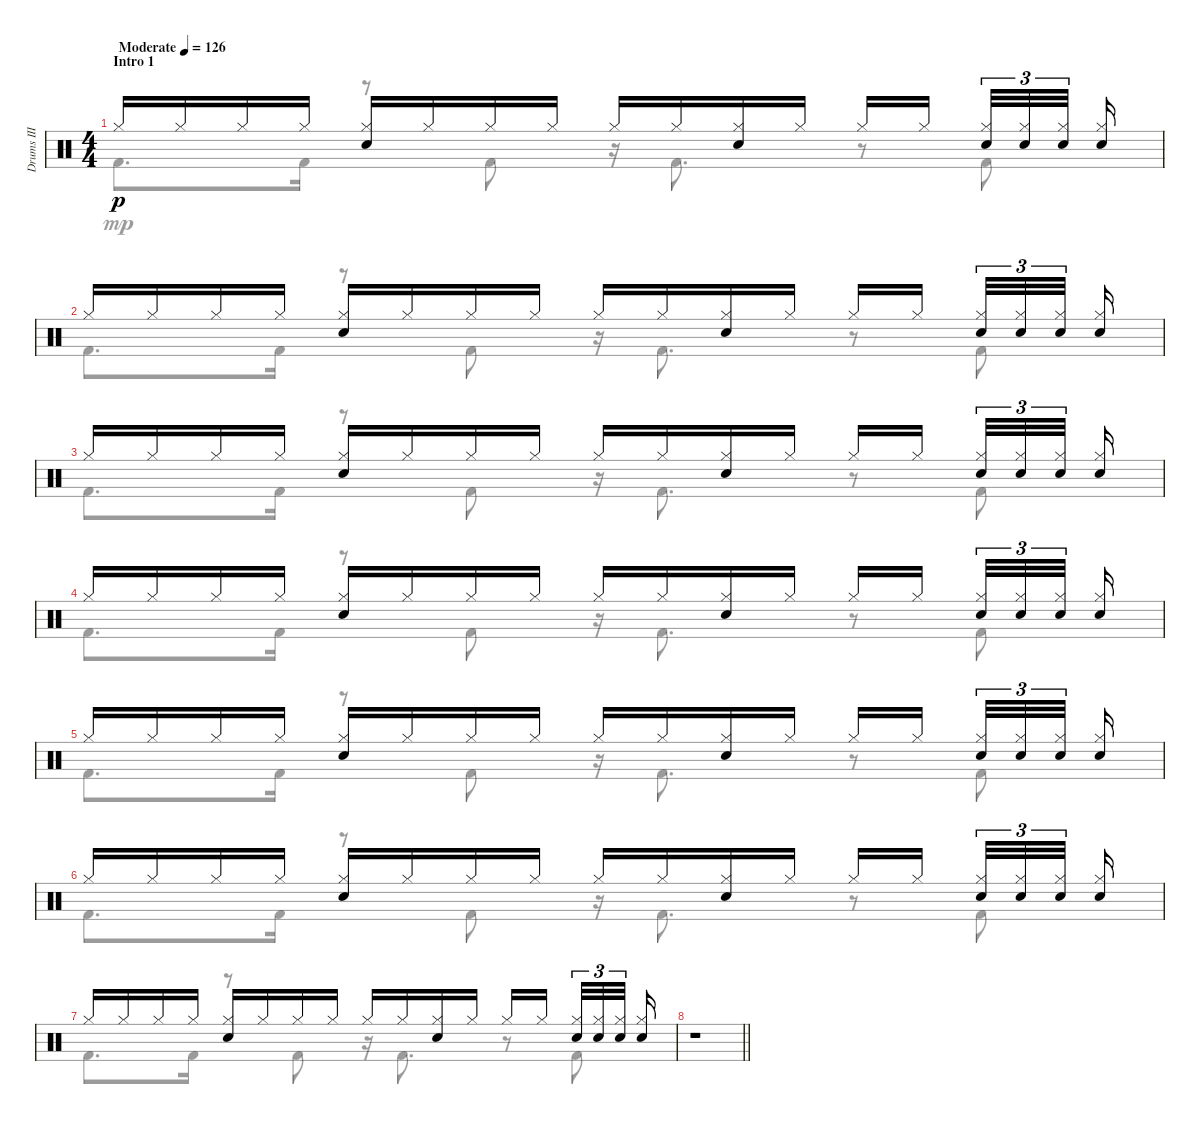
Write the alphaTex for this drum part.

\track ("Drums III" "Drums III") {instrument percussion}
\staff {score}
\articulation defaults
\voice
\ts (4 4)
\section ("" "Intro 1")
\tempo (126 "Moderate")
\clef neutral
\ks c "Hi-Hat (closed)".16{dy p} "Hi-Hat (closed)".16 "Hi-Hat (closed)".16 "Hi-Hat (closed)".16
("Hi-Hat (closed)" "Electric Snare (hit)").16 "Hi-Hat (closed)".16 "Hi-Hat (closed)".16 "Hi-Hat (closed)".16 "Hi-Hat (closed)".16 "Hi-Hat (closed)".16 ("Hi-Hat (closed)" "Electric Snare (hit)").16 "Hi-Hat (closed)".16 "Hi-Hat (closed)".16 "Hi-Hat (closed)".16{beam splitsecondary} ("Hi-Hat (closed)" "Electric Snare (hit)").32{tu (3 2)} ("Hi-Hat (closed)" "Electric Snare (hit)").32{tu (3 2)} ("Hi-Hat (closed)" "Electric Snare (hit)").32{tu (3 2) beam splitsecondary} ("Hi-Hat (closed)" "Electric Snare (hit)").16 |
"Hi-Hat (closed)".16 "Hi-Hat (closed)".16 "Hi-Hat (closed)".16 "Hi-Hat (closed)".16 ("Hi-Hat (closed)" "Electric Snare (hit)").16 "Hi-Hat (closed)".16 "Hi-Hat (closed)".16 "Hi-Hat (closed)".16 "Hi-Hat (closed)".16 "Hi-Hat (closed)".16 ("Hi-Hat (closed)" "Electric Snare (hit)").16 "Hi-Hat (closed)".16 "Hi-Hat (closed)".16 "Hi-Hat (closed)".16{beam splitsecondary} ("Hi-Hat (closed)" "Electric Snare (hit)").32{tu (3 2)} ("Hi-Hat (closed)" "Electric Snare (hit)").32{tu (3 2)} ("Hi-Hat (closed)" "Electric Snare (hit)").32{tu (3 2) beam splitsecondary} ("Hi-Hat (closed)" "Electric Snare (hit)").16 |
"Hi-Hat (closed)".16 "Hi-Hat (closed)".16 "Hi-Hat (closed)".16 "Hi-Hat (closed)".16 ("Hi-Hat (closed)" "Electric Snare (hit)").16 "Hi-Hat (closed)".16 "Hi-Hat (closed)".16 "Hi-Hat (closed)".16 "Hi-Hat (closed)".16 "Hi-Hat (closed)".16 ("Hi-Hat (closed)" "Electric Snare (hit)").16 "Hi-Hat (closed)".16 "Hi-Hat (closed)".16 "Hi-Hat (closed)".16{beam splitsecondary} ("Hi-Hat (closed)" "Electric Snare (hit)").32{tu (3 2)} ("Hi-Hat (closed)" "Electric Snare (hit)").32{tu (3 2)} ("Hi-Hat (closed)" "Electric Snare (hit)").32{tu (3 2) beam splitsecondary} ("Hi-Hat (closed)" "Electric Snare (hit)").16 |
"Hi-Hat (closed)".16 "Hi-Hat (closed)".16 "Hi-Hat (closed)".16 "Hi-Hat (closed)".16 ("Hi-Hat (closed)" "Electric Snare (hit)").16 "Hi-Hat (closed)".16 "Hi-Hat (closed)".16 "Hi-Hat (closed)".16 "Hi-Hat (closed)".16 "Hi-Hat (closed)".16 ("Hi-Hat (closed)" "Electric Snare (hit)").16 "Hi-Hat (closed)".16 "Hi-Hat (closed)".16 "Hi-Hat (closed)".16{beam splitsecondary} ("Hi-Hat (closed)" "Electric Snare (hit)").32{tu (3 2)} ("Hi-Hat (closed)" "Electric Snare (hit)").32{tu (3 2)} ("Hi-Hat (closed)" "Electric Snare (hit)").32{tu (3 2) beam splitsecondary} ("Hi-Hat (closed)" "Electric Snare (hit)").16 |
"Hi-Hat (closed)".16 "Hi-Hat (closed)".16 "Hi-Hat (closed)".16 "Hi-Hat (closed)".16 ("Hi-Hat (closed)" "Electric Snare (hit)").16 "Hi-Hat (closed)".16 "Hi-Hat (closed)".16 "Hi-Hat (closed)".16 "Hi-Hat (closed)".16 "Hi-Hat (closed)".16 ("Hi-Hat (closed)" "Electric Snare (hit)").16 "Hi-Hat (closed)".16 "Hi-Hat (closed)".16 "Hi-Hat (closed)".16{beam splitsecondary} ("Hi-Hat (closed)" "Electric Snare (hit)").32{tu (3 2)} ("Hi-Hat (closed)" "Electric Snare (hit)").32{tu (3 2)} ("Hi-Hat (closed)" "Electric Snare (hit)").32{tu (3 2) beam splitsecondary} ("Hi-Hat (closed)" "Electric Snare (hit)").16 |
"Hi-Hat (closed)".16 "Hi-Hat (closed)".16 "Hi-Hat (closed)".16 "Hi-Hat (closed)".16 ("Hi-Hat (closed)" "Electric Snare (hit)").16 "Hi-Hat (closed)".16 "Hi-Hat (closed)".16 "Hi-Hat (closed)".16 "Hi-Hat (closed)".16 "Hi-Hat (closed)".16 ("Hi-Hat (closed)" "Electric Snare (hit)").16 "Hi-Hat (closed)".16 "Hi-Hat (closed)".16 "Hi-Hat (closed)".16{beam splitsecondary} ("Hi-Hat (closed)" "Electric Snare (hit)").32{tu (3 2)} ("Hi-Hat (closed)" "Electric Snare (hit)").32{tu (3 2)} ("Hi-Hat (closed)" "Electric Snare (hit)").32{tu (3 2) beam splitsecondary} ("Hi-Hat (closed)" "Electric Snare (hit)").16 |
"Hi-Hat (closed)".16 "Hi-Hat (closed)".16 "Hi-Hat (closed)".16 "Hi-Hat (closed)".16 ("Hi-Hat (closed)" "Electric Snare (hit)").16 "Hi-Hat (closed)".16 "Hi-Hat (closed)".16 "Hi-Hat (closed)".16 "Hi-Hat (closed)".16 "Hi-Hat (closed)".16 ("Hi-Hat (closed)" "Electric Snare (hit)").16 "Hi-Hat (closed)".16 "Hi-Hat (closed)".16 "Hi-Hat (closed)".16{beam splitsecondary} ("Hi-Hat (closed)" "Electric Snare (hit)").32{tu (3 2)} ("Hi-Hat (closed)" "Electric Snare (hit)").32{tu (3 2)} ("Hi-Hat (closed)" "Electric Snare (hit)").32{tu (3 2) beam splitsecondary} ("Hi-Hat (closed)" "Electric Snare (hit)").16 |
\barLineRight lightlight
r.1
\voice
\clef neutral
\ottava regular
\simile none
\ks c "Kick (hit) 2".8{d dy mp} "Kick (hit) 2".16
r.8 "Kick (hit) 2".8 r.16 "Kick (hit) 2".8{d} r.8 "Kick (hit) 2".8 |
"Kick (hit) 2".8{d} "Kick (hit) 2".16 r.8 "Kick (hit) 2".8 r.16 "Kick (hit) 2".8{d} r.8 "Kick (hit) 2".8 |
"Kick (hit) 2".8{d} "Kick (hit) 2".16 r.8 "Kick (hit) 2".8 r.16 "Kick (hit) 2".8{d} r.8 "Kick (hit) 2".8 |
"Kick (hit) 2".8{d} "Kick (hit) 2".16 r.8 "Kick (hit) 2".8 r.16 "Kick (hit) 2".8{d} r.8 "Kick (hit) 2".8 |
"Kick (hit) 2".8{d} "Kick (hit) 2".16 r.8 "Kick (hit) 2".8 r.16 "Kick (hit) 2".8{d} r.8 "Kick (hit) 2".8 |
"Kick (hit) 2".8{d} "Kick (hit) 2".16 r.8 "Kick (hit) 2".8 r.16 "Kick (hit) 2".8{d} r.8 "Kick (hit) 2".8 |
"Kick (hit) 2".8{d} "Kick (hit) 2".16 r.8 "Kick (hit) 2".8 r.16 "Kick (hit) 2".8{d} r.8 "Kick (hit) 2".8 |
\barLineRight lightlight
r.1
